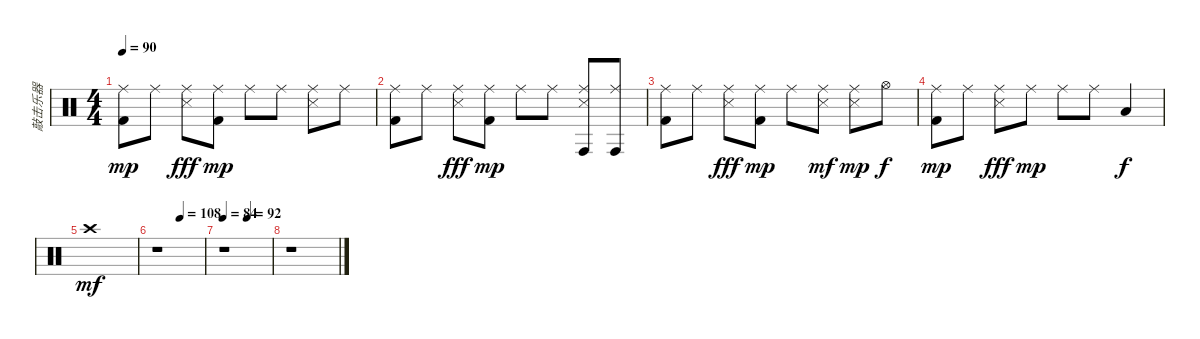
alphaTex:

\track ("敲击乐器" "敲击乐器") {instrument percussion}
\staff {score}
\articulation defaults
\ts (4 4)
\tempo 90
\clef neutral
\ks c
("Ride (middle)" "Kick (hit) 2").8{dy mp} "Ride (middle)".8 ("Ride (middle)" "Snare (side stick) 3").8{dy fff} ("Ride (middle)" "Kick (hit) 2").8{dy mp} "Ride (middle)".8 "Ride (middle)".8 ("Ride (middle)" "Snare (side stick) 3").8 "Ride (middle)".8 |
("Ride (middle)" "Kick (hit) 2").8 "Ride (middle)".8 ("Ride (middle)" "Snare (side stick) 3").8{dy fff} ("Ride (middle)" "Kick (hit) 2").8{dy mp} "Ride (middle)".8 "Ride (middle)".8 ("Ride (middle)" "Conga high (hit)" "Snare (side stick) 3").8 ("Ride (middle)" "Conga high (hit)").8 |
("Ride (middle)" "Kick (hit) 2").8 "Ride (middle)".8 ("Ride (middle)" "Snare (side stick) 3").8{dy fff} ("Ride (middle)" "Kick (hit) 2").8{dy mp} "Ride (middle)".8 ("Ride (middle)" "Snare (side stick) 3").8{dy mf} ("Ride (middle)" "Snare (side stick) 3").8{dy mp} "Hi-Hat (open)".8{dy f} |
("Ride (middle)" "Kick (hit) 2").8{dy mp} "Ride (middle)".8 ("Ride (middle)" "Snare (side stick) 3").8{dy fff} "Ride (middle)".8{dy mp} "Ride (middle)".8 "Ride (middle)".8 "Low Tom (hit)".4{dy f} |
"Crash high (hit)".1{dy mf} |
\tempo (108 0.5)
r.1 |
\tempo 84
\tempo (92 0.5)
r.1 |
r.1
